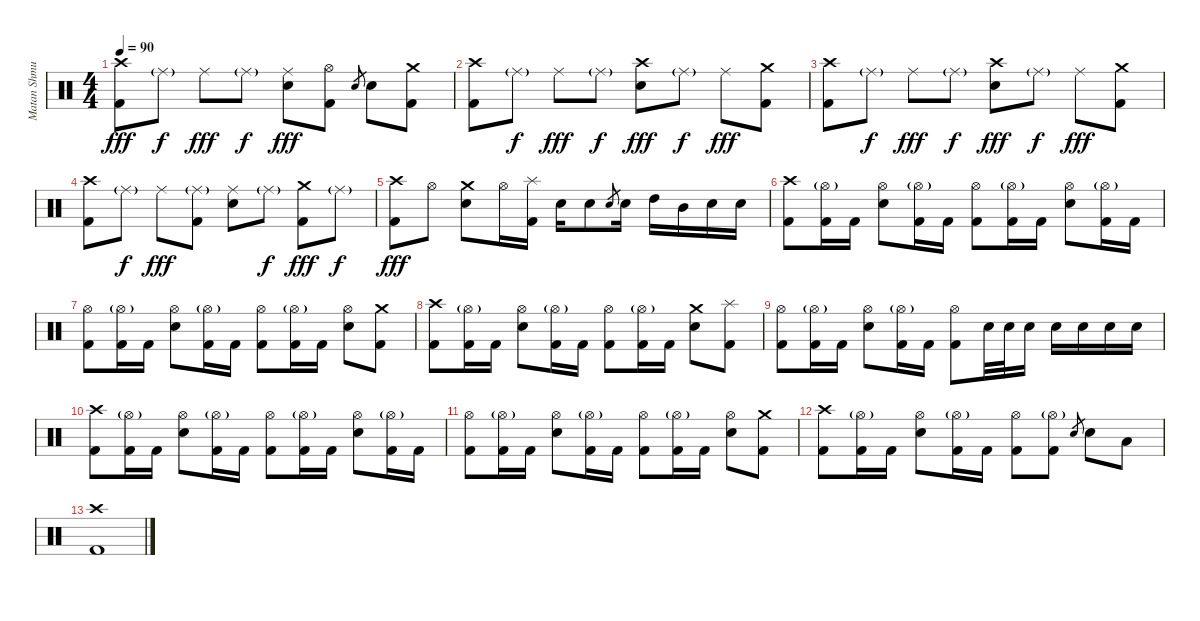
\track ("Matan Shmuely " "Matan Shmu") {instrument percussion}
\staff {score}
\articulation defaults
\ts (4 4)
\tempo 90
\clef neutral
\ks c
("Kick (hit) 2" "Crash high (hit)").8{dy fff} "Ride (middle)"{g}.8{dy f} "Ride (middle)".8{dy fff} "Ride (middle)"{g}.8{dy f} ("Electric Snare (hit)" "Ride (middle)").8{dy fff} ("Kick (hit) 2" "Hi-Hat (open)").8 "Electric Snare (hit)".8{gr} "Electric Snare (hit)".8 ("Kick (hit) 2" "Crash medium (hit)").8 |
("Kick (hit) 2" "Crash high (hit)").8 "Ride (middle)"{g}.8{dy f} "Ride (middle)".8{dy fff} "Ride (middle)"{g}.8{dy f} ("Electric Snare (hit)" "Crash high (hit)").8{dy fff} "Ride (middle)"{g}.8{dy f} "Ride (middle)".8{dy fff} ("Kick (hit) 2" "Crash medium (hit)").8 |
("Kick (hit) 2" "Crash high (hit)").8 "Ride (middle)"{g}.8{dy f} "Ride (middle)".8{dy fff} "Ride (middle)"{g}.8{dy f} ("Electric Snare (hit)" "Crash high (hit)").8{dy fff} "Ride (middle)"{g}.8{dy f} "Ride (middle)".8{dy fff} ("Kick (hit) 2" "Crash medium (hit)").8 |
("Kick (hit) 2" "Crash high (hit)").8 "Ride (middle)"{g}.8{dy f} "Ride (middle)".8{dy fff} ("Kick (hit) 2" "Ride (middle)"{g}).8 ("Electric Snare (hit)" "Ride (middle)").8 "Ride (middle)"{g}.8{dy f} ("Kick (hit) 2" "Crash medium (hit)").8{dy fff} "Ride (middle)"{g}.8{dy f} |
("Kick (hit) 2" "Crash high (hit)").8{dy fff} "Hi-Hat (open)".8 ("Electric Snare (hit)" "Crash medium (hit)").8 "Hi-Hat (open)".16 ("Kick (hit) 2" "Splash (hit)").16 "Electric Snare (hit)".16 "Electric Snare (hit)".8 "Electric Snare (hit)".8{gr} "Electric Snare (hit)".16 "High Tom (hit)".16 "Mid Tom (hit)".16 "Electric Snare (hit)".16 "Electric Snare (hit)".16 |
("Kick (hit) 2" "Crash high (hit)").8 ("Kick (hit) 2" "Hi-Hat (open)"{g}).16 "Kick (hit) 2".16 ("Electric Snare (hit)" "Hi-Hat (open)").8 ("Kick (hit) 2" "Hi-Hat (open)"{g}).16 "Kick (hit) 2".16 ("Kick (hit) 2" "Hi-Hat (open)").8 ("Kick (hit) 2" "Hi-Hat (open)"{g}).16 "Kick (hit) 2".16 ("Electric Snare (hit)" "Hi-Hat (open)").8 ("Kick (hit) 2" "Hi-Hat (open)"{g}).16 "Kick (hit) 2".16 |
("Kick (hit) 2" "Hi-Hat (open)").8 ("Kick (hit) 2" "Hi-Hat (open)"{g}).16 "Kick (hit) 2".16 ("Electric Snare (hit)" "Hi-Hat (open)").8 ("Kick (hit) 2" "Hi-Hat (open)"{g}).16 "Kick (hit) 2".16 ("Kick (hit) 2" "Hi-Hat (open)").8 ("Kick (hit) 2" "Hi-Hat (open)"{g}).16 "Kick (hit) 2".16 ("Electric Snare (hit)" "Hi-Hat (open)").8 ("Kick (hit) 2" "Crash medium (hit)").8 |
("Kick (hit) 2" "Crash high (hit)").8 ("Kick (hit) 2" "Hi-Hat (open)"{g}).16 "Kick (hit) 2".16 ("Electric Snare (hit)" "Hi-Hat (open)").8 ("Kick (hit) 2" "Hi-Hat (open)"{g}).16 "Kick (hit) 2".16 ("Kick (hit) 2" "Hi-Hat (open)").8 ("Kick (hit) 2" "Hi-Hat (open)"{g}).16 "Kick (hit) 2".16 ("Electric Snare (hit)" "Crash medium (hit)").8 ("Kick (hit) 2" "Splash (hit)").8 |
("Kick (hit) 2" "Hi-Hat (open)").8 ("Kick (hit) 2" "Hi-Hat (open)"{g}).16 "Kick (hit) 2".16 ("Electric Snare (hit)" "Hi-Hat (open)").8 ("Kick (hit) 2" "Hi-Hat (open)"{g}).16 "Kick (hit) 2".16 ("Kick (hit) 2" "Hi-Hat (open)").8 "Electric Snare (hit)".32 "Electric Snare (hit)".32 "Electric Snare (hit)".16 "Electric Snare (hit)".16 "Electric Snare (hit)".16 "Electric Snare (hit)".16 "Electric Snare (hit)".16 |
("Kick (hit) 2" "Crash high (hit)").8 ("Kick (hit) 2" "Hi-Hat (open)"{g}).16 "Kick (hit) 2".16 ("Electric Snare (hit)" "Hi-Hat (open)").8 ("Kick (hit) 2" "Hi-Hat (open)"{g}).16 "Kick (hit) 2".16 ("Kick (hit) 2" "Hi-Hat (open)").8 ("Kick (hit) 2" "Hi-Hat (open)"{g}).16 "Kick (hit) 2".16 ("Electric Snare (hit)" "Hi-Hat (open)").8 ("Kick (hit) 2" "Hi-Hat (open)"{g}).16 "Kick (hit) 2".16 |
("Kick (hit) 2" "Hi-Hat (open)").8 ("Kick (hit) 2" "Hi-Hat (open)"{g}).16 "Kick (hit) 2".16 ("Electric Snare (hit)" "Hi-Hat (open)").8 ("Kick (hit) 2" "Hi-Hat (open)"{g}).16 "Kick (hit) 2".16 ("Kick (hit) 2" "Hi-Hat (open)").8 ("Kick (hit) 2" "Hi-Hat (open)"{g}).16 "Kick (hit) 2".16 ("Electric Snare (hit)" "Hi-Hat (open)").8 ("Kick (hit) 2" "Crash medium (hit)").8 |
("Kick (hit) 2" "Crash high (hit)").8 ("Kick (hit) 2" "Hi-Hat (open)"{g}).16 "Kick (hit) 2".16 ("Electric Snare (hit)" "Hi-Hat (open)").8 ("Kick (hit) 2" "Hi-Hat (open)"{g}).16 "Kick (hit) 2".16 ("Kick (hit) 2" "Hi-Hat (open)").8 ("Kick (hit) 2" "Hi-Hat (open)"{g}).8 "Electric Snare (hit)".8{gr} "Electric Snare (hit)".8 "Low Tom (hit)".8 |
("Kick (hit) 2" "Crash high (hit)").1
